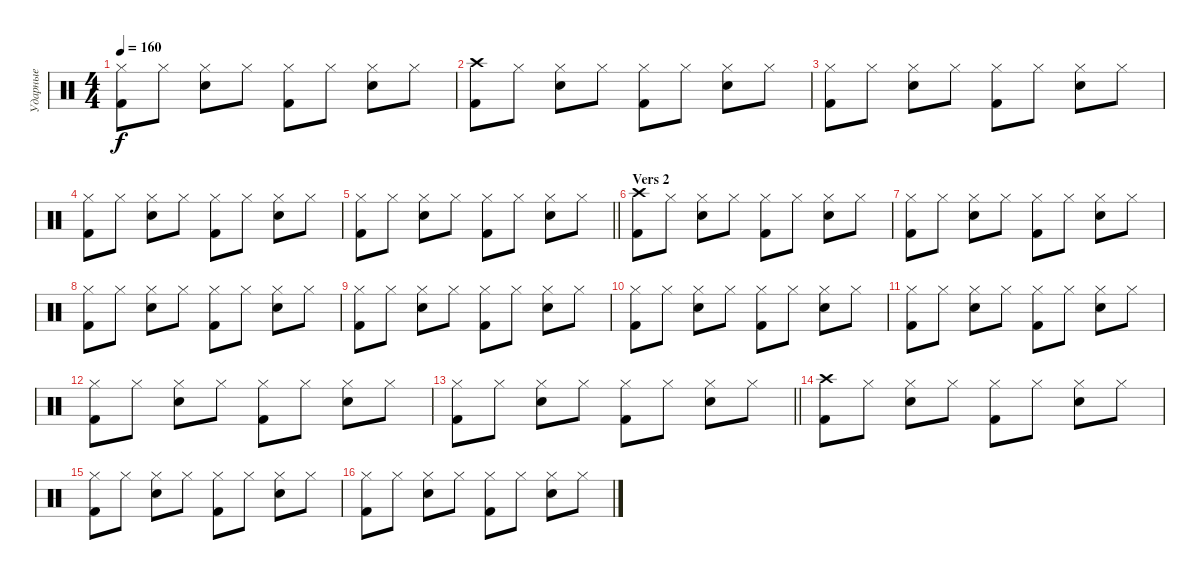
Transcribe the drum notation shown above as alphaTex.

\track ("Ударные" "Ударные") {instrument percussion}
\staff {score}
\articulation defaults
\ts (4 4)
\tempo 160
\clef neutral
\ks c
("Hi-Hat (closed)" "Kick (hit) 2").8{dy f} "Hi-Hat (closed)".8 ("Hi-Hat (closed)" "Snare (hit) 2").8 "Hi-Hat (closed)".8 ("Hi-Hat (closed)" "Kick (hit) 2").8 "Hi-Hat (closed)".8 ("Hi-Hat (closed)" "Snare (hit) 2").8 "Hi-Hat (closed)".8 |
("Crash high (hit)" "Kick (hit) 2").8 "Hi-Hat (closed)".8 ("Hi-Hat (closed)" "Snare (hit) 2").8 "Hi-Hat (closed)".8 ("Hi-Hat (closed)" "Kick (hit) 2").8 "Hi-Hat (closed)".8 ("Hi-Hat (closed)" "Snare (hit) 2").8 "Hi-Hat (closed)".8 |
("Hi-Hat (closed)" "Kick (hit) 2").8 "Hi-Hat (closed)".8 ("Hi-Hat (closed)" "Snare (hit) 2").8 "Hi-Hat (closed)".8 ("Hi-Hat (closed)" "Kick (hit) 2").8 "Hi-Hat (closed)".8 ("Hi-Hat (closed)" "Snare (hit) 2").8 "Hi-Hat (closed)".8 |
("Hi-Hat (closed)" "Kick (hit) 2").8 "Hi-Hat (closed)".8 ("Hi-Hat (closed)" "Snare (hit) 2").8 "Hi-Hat (closed)".8 ("Hi-Hat (closed)" "Kick (hit) 2").8 "Hi-Hat (closed)".8 ("Hi-Hat (closed)" "Snare (hit) 2").8 "Hi-Hat (closed)".8 |
\barLineRight lightlight
("Hi-Hat (closed)" "Kick (hit) 2").8 "Hi-Hat (closed)".8 ("Hi-Hat (closed)" "Snare (hit) 2").8 "Hi-Hat (closed)".8 ("Hi-Hat (closed)" "Kick (hit) 2").8 "Hi-Hat (closed)".8 ("Hi-Hat (closed)" "Snare (hit) 2").8 "Hi-Hat (closed)".8 |
\section ("" "Vers 2")
("Crash high (hit)" "Kick (hit) 2").8 "Hi-Hat (closed)".8 ("Hi-Hat (closed)" "Snare (hit) 2").8 "Hi-Hat (closed)".8 ("Hi-Hat (closed)" "Kick (hit) 2").8 "Hi-Hat (closed)".8 ("Hi-Hat (closed)" "Snare (hit) 2").8 "Hi-Hat (closed)".8 |
("Hi-Hat (closed)" "Kick (hit) 2").8 "Hi-Hat (closed)".8 ("Hi-Hat (closed)" "Snare (hit) 2").8 "Hi-Hat (closed)".8 ("Hi-Hat (closed)" "Kick (hit) 2").8 "Hi-Hat (closed)".8 ("Hi-Hat (closed)" "Snare (hit) 2").8 "Hi-Hat (closed)".8 |
("Hi-Hat (closed)" "Kick (hit) 2").8 "Hi-Hat (closed)".8 ("Hi-Hat (closed)" "Snare (hit) 2").8 "Hi-Hat (closed)".8 ("Hi-Hat (closed)" "Kick (hit) 2").8 "Hi-Hat (closed)".8 ("Hi-Hat (closed)" "Snare (hit) 2").8 "Hi-Hat (closed)".8 |
("Hi-Hat (closed)" "Kick (hit) 2").8 "Hi-Hat (closed)".8 ("Hi-Hat (closed)" "Snare (hit) 2").8 "Hi-Hat (closed)".8 ("Hi-Hat (closed)" "Kick (hit) 2").8 "Hi-Hat (closed)".8 ("Hi-Hat (closed)" "Snare (hit) 2").8 "Hi-Hat (closed)".8 |
("Hi-Hat (closed)" "Kick (hit) 2").8 "Hi-Hat (closed)".8 ("Hi-Hat (closed)" "Snare (hit) 2").8 "Hi-Hat (closed)".8 ("Hi-Hat (closed)" "Kick (hit) 2").8 "Hi-Hat (closed)".8 ("Hi-Hat (closed)" "Snare (hit) 2").8 "Hi-Hat (closed)".8 |
("Hi-Hat (closed)" "Kick (hit) 2").8 "Hi-Hat (closed)".8 ("Hi-Hat (closed)" "Snare (hit) 2").8 "Hi-Hat (closed)".8 ("Hi-Hat (closed)" "Kick (hit) 2").8 "Hi-Hat (closed)".8 ("Hi-Hat (closed)" "Snare (hit) 2").8 "Hi-Hat (closed)".8 |
("Hi-Hat (closed)" "Kick (hit) 2").8 "Hi-Hat (closed)".8 ("Hi-Hat (closed)" "Snare (hit) 2").8 "Hi-Hat (closed)".8 ("Hi-Hat (closed)" "Kick (hit) 2").8 "Hi-Hat (closed)".8 ("Hi-Hat (closed)" "Snare (hit) 2").8 "Hi-Hat (closed)".8 |
\barLineRight lightlight
("Hi-Hat (closed)" "Kick (hit) 2").8 "Hi-Hat (closed)".8 ("Hi-Hat (closed)" "Snare (hit) 2").8 "Hi-Hat (closed)".8 ("Hi-Hat (closed)" "Kick (hit) 2").8 "Hi-Hat (closed)".8 ("Hi-Hat (closed)" "Snare (hit) 2").8 "Hi-Hat (closed)".8 |
("Crash high (hit)" "Kick (hit) 2").8 "Hi-Hat (closed)".8 ("Hi-Hat (closed)" "Snare (hit) 2").8 "Hi-Hat (closed)".8 ("Hi-Hat (closed)" "Kick (hit) 2").8 "Hi-Hat (closed)".8 ("Hi-Hat (closed)" "Snare (hit) 2").8 "Hi-Hat (closed)".8 |
("Hi-Hat (closed)" "Kick (hit) 2").8 "Hi-Hat (closed)".8 ("Hi-Hat (closed)" "Snare (hit) 2").8 "Hi-Hat (closed)".8 ("Hi-Hat (closed)" "Kick (hit) 2").8 "Hi-Hat (closed)".8 ("Hi-Hat (closed)" "Snare (hit) 2").8 "Hi-Hat (closed)".8 |
("Hi-Hat (closed)" "Kick (hit) 2").8 "Hi-Hat (closed)".8 ("Hi-Hat (closed)" "Snare (hit) 2").8 "Hi-Hat (closed)".8 ("Hi-Hat (closed)" "Kick (hit) 2").8 "Hi-Hat (closed)".8 ("Hi-Hat (closed)" "Snare (hit) 2").8 "Hi-Hat (closed)".8
